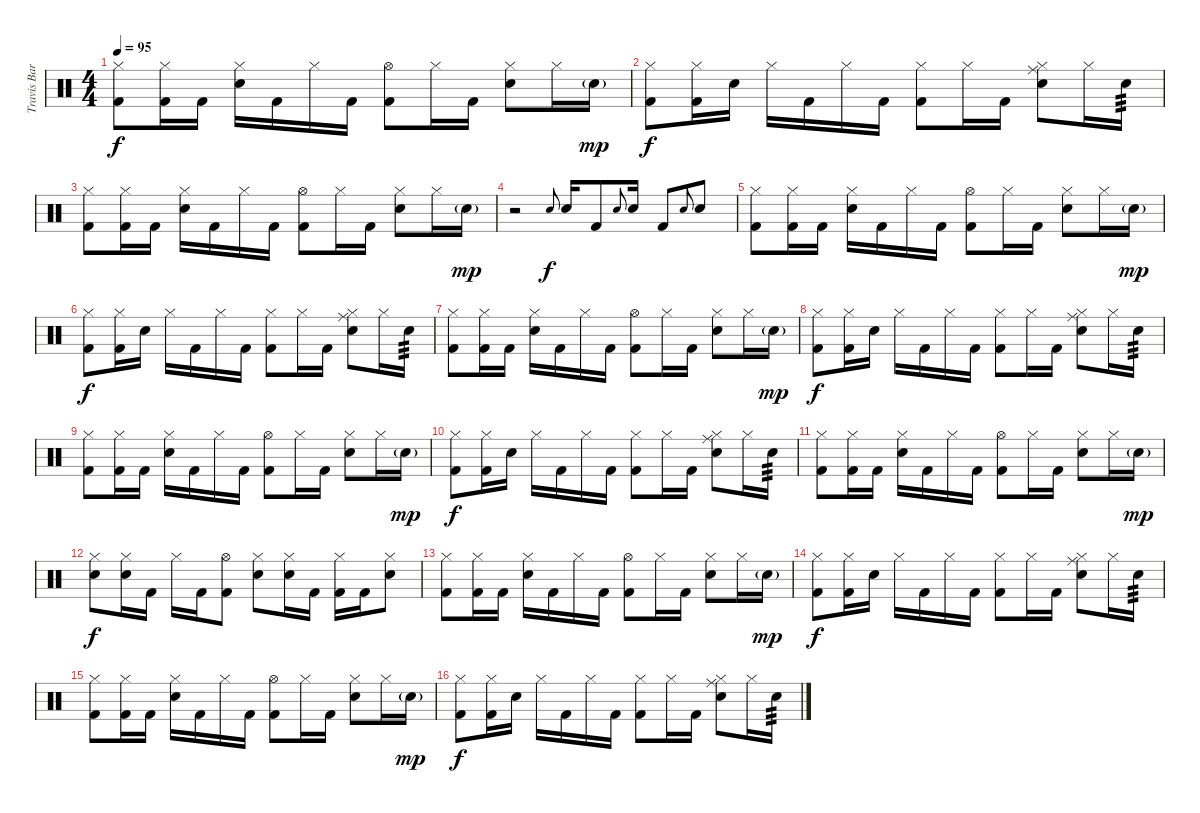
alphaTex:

\track ("Travis Barker - Drums" "Travis Bar") {instrument percussion}
\staff {score}
\articulation defaults
\ts (4 4)
\tempo 95
\clef neutral
\ks c
("Hi-Hat (closed)" "Kick (hit) 2").8{dy f} ("Hi-Hat (closed)" "Kick (hit) 2").16 "Kick (hit) 2".16 ("Hi-Hat (closed)" "Electric Snare (hit)").16 "Kick (hit) 2".16 "Hi-Hat (closed)".16 "Kick (hit) 2".16 ("Hi-Hat (open)" "Kick (hit) 2").8 "Hi-Hat (closed)".16 "Kick (hit) 2".16 ("Hi-Hat (closed)" "Electric Snare (hit)").8 "Hi-Hat (closed)".16 "Electric Snare (hit)"{g}.16{dy mp} |
("Hi-Hat (closed)" "Kick (hit) 2").8{dy f} ("Hi-Hat (closed)" "Kick (hit) 2").16 "Electric Snare (hit)".16 "Hi-Hat (closed)".16 "Kick (hit) 2".16 "Hi-Hat (closed)".16 "Kick (hit) 2".16 ("Hi-Hat (closed)" "Kick (hit) 2").8 "Hi-Hat (closed)".16 "Kick (hit) 2".16 ("Hi-Hat (closed)" "Ride (middle)" "Electric Snare (hit)").8 "Hi-Hat (closed)".16 "Electric Snare (hit)".16{tp 3} |
("Hi-Hat (closed)" "Kick (hit) 2").8 ("Hi-Hat (closed)" "Kick (hit) 2").16 "Kick (hit) 2".16 ("Hi-Hat (closed)" "Electric Snare (hit)").16 "Kick (hit) 2".16 "Hi-Hat (closed)".16 "Kick (hit) 2".16 ("Hi-Hat (open)" "Kick (hit) 2").8 "Hi-Hat (closed)".16 "Kick (hit) 2".16 ("Hi-Hat (closed)" "Electric Snare (hit)").8 "Hi-Hat (closed)".16 "Electric Snare (hit)"{g}.16{dy mp} |
r.2 "Electric Snare (hit)".8{gr onbeat dy f} "Electric Snare (hit)".16 "Kick (hit) 2".8 "Electric Snare (hit)".8{gr onbeat} "Electric Snare (hit)".16 "Kick (hit) 2".8 "Electric Snare (hit)".8{gr onbeat} "Electric Snare (hit)".8 |
("Hi-Hat (closed)" "Kick (hit) 2").8 ("Hi-Hat (closed)" "Kick (hit) 2").16 "Kick (hit) 2".16 ("Hi-Hat (closed)" "Electric Snare (hit)").16 "Kick (hit) 2".16 "Hi-Hat (closed)".16 "Kick (hit) 2".16 ("Hi-Hat (open)" "Kick (hit) 2").8 "Hi-Hat (closed)".16 "Kick (hit) 2".16 ("Hi-Hat (closed)" "Electric Snare (hit)").8 "Hi-Hat (closed)".16 "Electric Snare (hit)"{g}.16{dy mp} |
("Hi-Hat (closed)" "Kick (hit) 2").8{dy f} ("Hi-Hat (closed)" "Kick (hit) 2").16 "Electric Snare (hit)".16 "Hi-Hat (closed)".16 "Kick (hit) 2".16 "Hi-Hat (closed)".16 "Kick (hit) 2".16 ("Hi-Hat (closed)" "Kick (hit) 2").8 "Hi-Hat (closed)".16 "Kick (hit) 2".16 ("Hi-Hat (closed)" "Ride (middle)" "Electric Snare (hit)").8 "Hi-Hat (closed)".16 "Electric Snare (hit)".16{tp 3} |
("Hi-Hat (closed)" "Kick (hit) 2").8 ("Hi-Hat (closed)" "Kick (hit) 2").16 "Kick (hit) 2".16 ("Hi-Hat (closed)" "Electric Snare (hit)").16 "Kick (hit) 2".16 "Hi-Hat (closed)".16 "Kick (hit) 2".16 ("Hi-Hat (open)" "Kick (hit) 2").8 "Hi-Hat (closed)".16 "Kick (hit) 2".16 ("Hi-Hat (closed)" "Electric Snare (hit)").8 "Hi-Hat (closed)".16 "Electric Snare (hit)"{g}.16{dy mp} |
("Hi-Hat (closed)" "Kick (hit) 2").8{dy f} ("Hi-Hat (closed)" "Kick (hit) 2").16 "Electric Snare (hit)".16 "Hi-Hat (closed)".16 "Kick (hit) 2".16 "Hi-Hat (closed)".16 "Kick (hit) 2".16 ("Hi-Hat (closed)" "Kick (hit) 2").8 "Hi-Hat (closed)".16 "Kick (hit) 2".16 ("Hi-Hat (closed)" "Ride (middle)" "Electric Snare (hit)").8 "Hi-Hat (closed)".16 "Electric Snare (hit)".16{tp 3} |
("Hi-Hat (closed)" "Kick (hit) 2").8 ("Hi-Hat (closed)" "Kick (hit) 2").16 "Kick (hit) 2".16 ("Hi-Hat (closed)" "Electric Snare (hit)").16 "Kick (hit) 2".16 "Hi-Hat (closed)".16 "Kick (hit) 2".16 ("Hi-Hat (open)" "Kick (hit) 2").8 "Hi-Hat (closed)".16 "Kick (hit) 2".16 ("Hi-Hat (closed)" "Electric Snare (hit)").8 "Hi-Hat (closed)".16 "Electric Snare (hit)"{g}.16{dy mp} |
("Hi-Hat (closed)" "Kick (hit) 2").8{dy f} ("Hi-Hat (closed)" "Kick (hit) 2").16 "Electric Snare (hit)".16 "Hi-Hat (closed)".16 "Kick (hit) 2".16 "Hi-Hat (closed)".16 "Kick (hit) 2".16 ("Hi-Hat (closed)" "Kick (hit) 2").8 "Hi-Hat (closed)".16 "Kick (hit) 2".16 ("Hi-Hat (closed)" "Ride (middle)" "Electric Snare (hit)").8 "Hi-Hat (closed)".16 "Electric Snare (hit)".16{tp 3} |
("Hi-Hat (closed)" "Kick (hit) 2").8 ("Hi-Hat (closed)" "Kick (hit) 2").16 "Kick (hit) 2".16 ("Hi-Hat (closed)" "Electric Snare (hit)").16 "Kick (hit) 2".16 "Hi-Hat (closed)".16 "Kick (hit) 2".16 ("Hi-Hat (open)" "Kick (hit) 2").8 "Hi-Hat (closed)".16 "Kick (hit) 2".16 ("Hi-Hat (closed)" "Electric Snare (hit)").8 "Hi-Hat (closed)".16 "Electric Snare (hit)"{g}.16{dy mp} |
("Hi-Hat (closed)" "Electric Snare (hit)").8{dy f} ("Hi-Hat (closed)" "Electric Snare (hit)").16 "Kick (hit) 2".16 "Hi-Hat (closed)".16 "Kick (hit) 2".16 ("Hi-Hat (open)" "Kick (hit) 2").8 ("Hi-Hat (closed)" "Electric Snare (hit)").8 ("Hi-Hat (closed)" "Electric Snare (hit)").16 "Kick (hit) 2".16 ("Hi-Hat (closed)" "Kick (hit) 2").16 "Kick (hit) 2".16 ("Hi-Hat (closed)" "Electric Snare (hit)").8 |
("Hi-Hat (closed)" "Kick (hit) 2").8 ("Hi-Hat (closed)" "Kick (hit) 2").16 "Kick (hit) 2".16 ("Hi-Hat (closed)" "Electric Snare (hit)").16 "Kick (hit) 2".16 "Hi-Hat (closed)".16 "Kick (hit) 2".16 ("Hi-Hat (open)" "Kick (hit) 2").8 "Hi-Hat (closed)".16 "Kick (hit) 2".16 ("Hi-Hat (closed)" "Electric Snare (hit)").8 "Hi-Hat (closed)".16 "Electric Snare (hit)"{g}.16{dy mp} |
("Hi-Hat (closed)" "Kick (hit) 2").8{dy f} ("Hi-Hat (closed)" "Kick (hit) 2").16 "Electric Snare (hit)".16 "Hi-Hat (closed)".16 "Kick (hit) 2".16 "Hi-Hat (closed)".16 "Kick (hit) 2".16 ("Hi-Hat (closed)" "Kick (hit) 2").8 "Hi-Hat (closed)".16 "Kick (hit) 2".16 ("Hi-Hat (closed)" "Ride (middle)" "Electric Snare (hit)").8 "Hi-Hat (closed)".16 "Electric Snare (hit)".16{tp 3} |
("Hi-Hat (closed)" "Kick (hit) 2").8 ("Hi-Hat (closed)" "Kick (hit) 2").16 "Kick (hit) 2".16 ("Hi-Hat (closed)" "Electric Snare (hit)").16 "Kick (hit) 2".16 "Hi-Hat (closed)".16 "Kick (hit) 2".16 ("Hi-Hat (open)" "Kick (hit) 2").8 "Hi-Hat (closed)".16 "Kick (hit) 2".16 ("Hi-Hat (closed)" "Electric Snare (hit)").8 "Hi-Hat (closed)".16 "Electric Snare (hit)"{g}.16{dy mp} |
("Hi-Hat (closed)" "Kick (hit) 2").8{dy f} ("Hi-Hat (closed)" "Kick (hit) 2").16 "Electric Snare (hit)".16 "Hi-Hat (closed)".16 "Kick (hit) 2".16 "Hi-Hat (closed)".16 "Kick (hit) 2".16 ("Hi-Hat (closed)" "Kick (hit) 2").8 "Hi-Hat (closed)".16 "Kick (hit) 2".16 ("Hi-Hat (closed)" "Ride (middle)" "Electric Snare (hit)").8 "Hi-Hat (closed)".16 "Electric Snare (hit)".16{tp 3}
